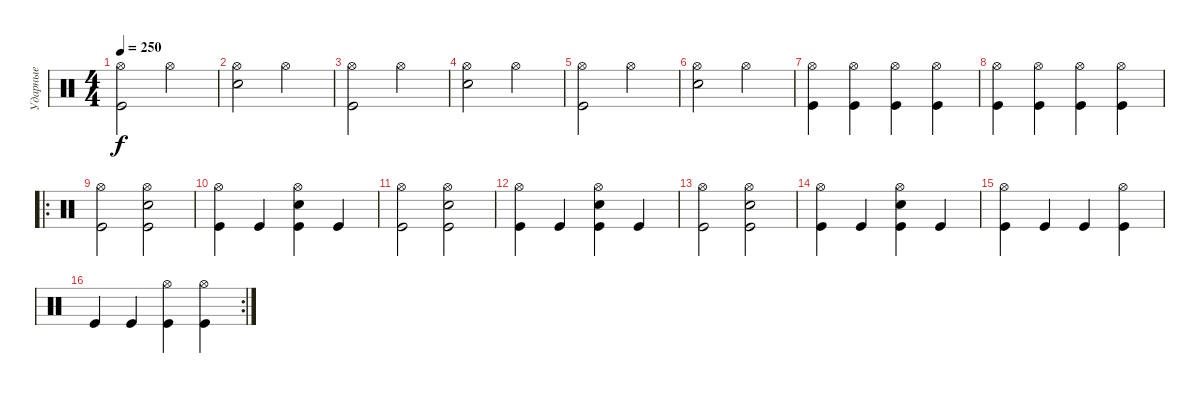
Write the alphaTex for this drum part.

\track ("Ударные" "Ударные") {instrument percussion}
\staff {score}
\articulation defaults
\ts (4 4)
\tempo 250
\clef neutral
\ks c
("Hi-Hat (open)" "Kick (hit)").2{dy f} "Hi-Hat (open)".2 |
("Hi-Hat (open)" "Snare (hit) 2").2 "Hi-Hat (open)".2 |
("Hi-Hat (open)" "Kick (hit)").2 "Hi-Hat (open)".2 |
("Hi-Hat (open)" "Snare (hit) 2").2 "Hi-Hat (open)".2 |
("Hi-Hat (open)" "Kick (hit)").2 "Hi-Hat (open)".2 |
("Hi-Hat (open)" "Snare (hit) 2").2 "Hi-Hat (open)".2 |
("Hi-Hat (open)" "Kick (hit)").4 ("Hi-Hat (open)" "Kick (hit)").4 ("Hi-Hat (open)" "Kick (hit)").4 ("Hi-Hat (open)" "Kick (hit)").4 |
("Kick (hit)" "Hi-Hat (open)").4 ("Hi-Hat (open)" "Kick (hit)").4 ("Hi-Hat (open)" "Kick (hit)").4 ("Hi-Hat (open)" "Kick (hit)").4 |
\ro
("Hi-Hat (open)" "Kick (hit)").2 ("Hi-Hat (open)" "Snare (hit) 2" "Kick (hit)").2 |
("Hi-Hat (open)" "Kick (hit)").4 "Kick (hit)".4 ("Hi-Hat (open)" "Snare (hit) 2" "Kick (hit)").4 "Kick (hit)".4 |
("Hi-Hat (open)" "Kick (hit)").2 ("Hi-Hat (open)" "Snare (hit) 2" "Kick (hit)").2 |
("Hi-Hat (open)" "Kick (hit)").4 "Kick (hit)".4 ("Hi-Hat (open)" "Snare (hit) 2" "Kick (hit)").4 "Kick (hit)".4 |
("Hi-Hat (open)" "Kick (hit)").2 ("Hi-Hat (open)" "Snare (hit) 2" "Kick (hit)").2 |
("Hi-Hat (open)" "Kick (hit)").4 "Kick (hit)".4 ("Hi-Hat (open)" "Snare (hit) 2" "Kick (hit)").4 "Kick (hit)".4 |
("Kick (hit)" "Hi-Hat (open)").4 "Kick (hit)".4 "Kick (hit)".4 ("Hi-Hat (open)" "Kick (hit)").4 |
\rc 2 "Kick (hit)".4 "Kick (hit)".4
("Hi-Hat (open)" "Kick (hit)").4 ("Hi-Hat (open)" "Kick (hit)").4
